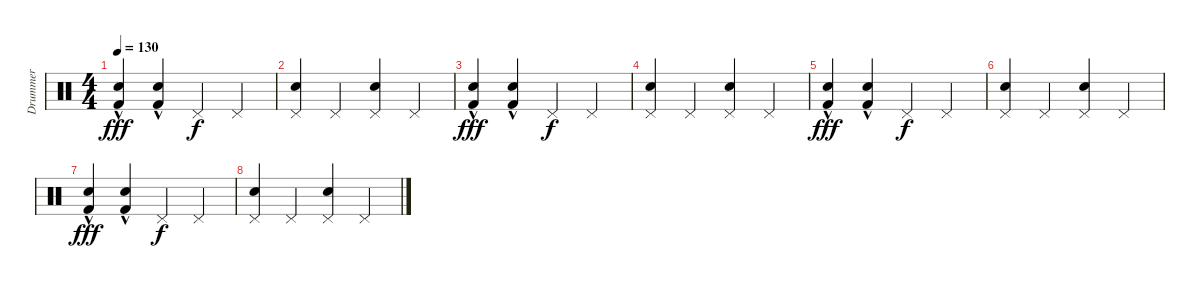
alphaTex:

\track ("Drummer" "Drummer") {instrument percussion}
\staff {score}
\articulation defaults
\ts (4 4)
\tempo 130
\clef neutral
\ks c
("Kick (hit) 2"{hac} "Snare (hit) 2"{hac}).4{dy fff} ("Kick (hit) 2"{hac} "Snare (hit) 2"{hac}).4 "Pedal Hi-Hat (hit)".4{dy f} "Pedal Hi-Hat (hit)".4 |
("Pedal Hi-Hat (hit)" "Snare (hit) 2").4 "Pedal Hi-Hat (hit)".4 ("Pedal Hi-Hat (hit)" "Snare (hit) 2").4 "Pedal Hi-Hat (hit)".4 |
("Kick (hit) 2"{hac} "Snare (hit) 2"{hac}).4{dy fff} ("Kick (hit) 2"{hac} "Snare (hit) 2"{hac}).4 "Pedal Hi-Hat (hit)".4{dy f} "Pedal Hi-Hat (hit)".4 |
("Pedal Hi-Hat (hit)" "Snare (hit) 2").4 "Pedal Hi-Hat (hit)".4 ("Pedal Hi-Hat (hit)" "Snare (hit) 2").4 "Pedal Hi-Hat (hit)".4 |
("Kick (hit) 2"{hac} "Snare (hit) 2"{hac}).4{dy fff} ("Kick (hit) 2"{hac} "Snare (hit) 2"{hac}).4 "Pedal Hi-Hat (hit)".4{dy f} "Pedal Hi-Hat (hit)".4 |
("Pedal Hi-Hat (hit)" "Snare (hit) 2").4 "Pedal Hi-Hat (hit)".4 ("Pedal Hi-Hat (hit)" "Snare (hit) 2").4 "Pedal Hi-Hat (hit)".4 |
("Kick (hit) 2"{hac} "Snare (hit) 2"{hac}).4{dy fff} ("Kick (hit) 2"{hac} "Snare (hit) 2"{hac}).4 "Pedal Hi-Hat (hit)".4{dy f} "Pedal Hi-Hat (hit)".4 |
("Pedal Hi-Hat (hit)" "Snare (hit) 2").4 "Pedal Hi-Hat (hit)".4 ("Pedal Hi-Hat (hit)" "Snare (hit) 2").4 "Pedal Hi-Hat (hit)".4
